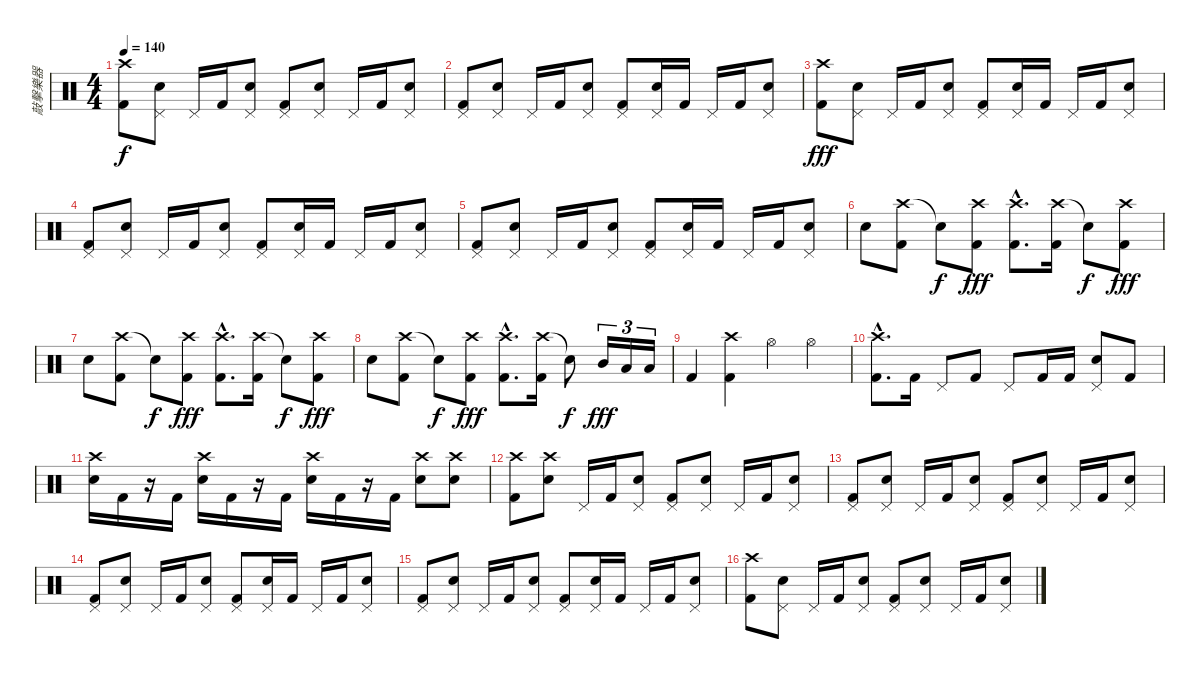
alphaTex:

\track ("敲擊樂器" "敲擊樂器") {instrument percussion}
\staff {score}
\articulation defaults
\ts (4 4)
\tempo 140
\clef neutral
\ks c
("Crash high (hit)" "Kick (hit) 2").8{dy f} ("Pedal Hi-Hat (hit)" "Snare (hit) 2").8 "Pedal Hi-Hat (hit)".16 "Kick (hit) 2".16 ("Pedal Hi-Hat (hit)" "Snare (hit) 2").8 ("Pedal Hi-Hat (hit)" "Kick (hit) 2").8 ("Pedal Hi-Hat (hit)" "Snare (hit) 2").8 "Pedal Hi-Hat (hit)".16 "Kick (hit) 2".16 ("Pedal Hi-Hat (hit)" "Snare (hit) 2").8 |
("Pedal Hi-Hat (hit)" "Kick (hit) 2").8 ("Pedal Hi-Hat (hit)" "Snare (hit) 2").8 "Pedal Hi-Hat (hit)".16 "Kick (hit) 2".16 ("Pedal Hi-Hat (hit)" "Snare (hit) 2").8 ("Pedal Hi-Hat (hit)" "Kick (hit) 2").8 ("Pedal Hi-Hat (hit)" "Snare (hit) 2").16 "Kick (hit) 2".16 "Pedal Hi-Hat (hit)".16 "Kick (hit) 2".16 ("Pedal Hi-Hat (hit)" "Snare (hit) 2").8 |
("Crash high (hit)" "Kick (hit) 2").8{dy fff} ("Pedal Hi-Hat (hit)" "Snare (hit) 2").8 "Pedal Hi-Hat (hit)".16 "Kick (hit) 2".16 ("Pedal Hi-Hat (hit)" "Snare (hit) 2").8 ("Pedal Hi-Hat (hit)" "Kick (hit) 2").8 ("Pedal Hi-Hat (hit)" "Snare (hit) 2").16 "Kick (hit) 2".16 "Pedal Hi-Hat (hit)".16 "Kick (hit) 2".16 ("Pedal Hi-Hat (hit)" "Snare (hit) 2").8 |
("Pedal Hi-Hat (hit)" "Kick (hit) 2").8 ("Pedal Hi-Hat (hit)" "Snare (hit) 2").8 "Pedal Hi-Hat (hit)".16 "Kick (hit) 2".16 ("Pedal Hi-Hat (hit)" "Snare (hit) 2").8 ("Pedal Hi-Hat (hit)" "Kick (hit) 2").8 ("Pedal Hi-Hat (hit)" "Snare (hit) 2").16 "Kick (hit) 2".16 "Pedal Hi-Hat (hit)".16 "Kick (hit) 2".16 ("Pedal Hi-Hat (hit)" "Snare (hit) 2").8 |
("Pedal Hi-Hat (hit)" "Kick (hit) 2").8 ("Pedal Hi-Hat (hit)" "Snare (hit) 2").8 "Pedal Hi-Hat (hit)".16 "Kick (hit) 2".16 ("Pedal Hi-Hat (hit)" "Snare (hit) 2").8 ("Pedal Hi-Hat (hit)" "Kick (hit) 2").8 ("Pedal Hi-Hat (hit)" "Snare (hit) 2").16 "Kick (hit) 2".16 "Pedal Hi-Hat (hit)".16 "Kick (hit) 2".16 ("Pedal Hi-Hat (hit)" "Snare (hit) 2").8 |
"Snare (hit) 2".8 ("Crash high (hit)" "Kick (hit) 2").8 "Snare (hit)"{t}.8{dy f} ("Crash high (hit)" "Kick (hit) 2").8{dy fff} ("Crash high (hit)"{hac} "Kick (hit) 2"{hac}).8{d} ("Crash high (hit)" "Kick (hit) 2").16 "Snare (hit)"{t}.8{dy f} ("Crash high (hit)" "Kick (hit) 2").8{dy fff} |
"Snare (hit) 2".8 ("Crash high (hit)" "Kick (hit) 2").8 "Snare (hit)"{t}.8{dy f} ("Crash high (hit)" "Kick (hit) 2").8{dy fff} ("Crash high (hit)"{hac} "Kick (hit) 2"{hac}).8{d} ("Crash high (hit)" "Kick (hit) 2").16 "Snare (hit)"{t}.8{dy f} ("Crash high (hit)" "Kick (hit) 2").8{dy fff} |
"Snare (hit) 2".8 ("Crash high (hit)" "Kick (hit) 2").8 "Snare (hit)"{t}.8{dy f} ("Crash high (hit)" "Kick (hit) 2").8{dy fff} ("Crash high (hit)"{hac} "Kick (hit) 2"{hac}).8{d} ("Crash high (hit)" "Kick (hit) 2").16 "Snare (hit)"{t}.8{dy f} "Mid Tom (hit)".16{tu (3 2) dy fff} "Low Tom (hit)".16{tu (3 2)} "Low Floor Tom (hit)".16{tu (3 2)} |
"Kick (hit) 2".4 ("Crash high (hit)" "Kick (hit) 2").4 "Hi-Hat (open)".4 "Hi-Hat (open)".4 |
("Crash high (hit)"{hac} "Kick (hit) 2"{hac}).8{d} "Kick (hit) 2".16 "Pedal Hi-Hat (hit)".8 "Kick (hit) 2".8 "Pedal Hi-Hat (hit)".8 "Kick (hit) 2".16 "Kick (hit) 2".16 ("Pedal Hi-Hat (hit)" "Snare (hit) 2").8 "Kick (hit) 2".8 |
("Crash high (hit)" "Snare (hit) 2").16 "Kick (hit) 2".16 r.16 "Kick (hit) 2".16 ("Crash high (hit)" "Snare (hit) 2").16 "Kick (hit) 2".16 r.16 "Kick (hit) 2".16 ("Crash high (hit)" "Snare (hit) 2").16 "Kick (hit) 2".16 r.16 "Kick (hit) 2".16 ("Crash high (hit)" "Snare (hit) 2").8 ("Crash high (hit)" "Snare (hit) 2").8 |
("Crash high (hit)" "Kick (hit) 2").8 ("Crash high (hit)" "Snare (hit) 2").8 "Pedal Hi-Hat (hit)".16 "Kick (hit) 2".16 ("Pedal Hi-Hat (hit)" "Snare (hit) 2").8 ("Pedal Hi-Hat (hit)" "Kick (hit) 2").8 ("Pedal Hi-Hat (hit)" "Snare (hit) 2").8 "Pedal Hi-Hat (hit)".16 "Kick (hit) 2".16 ("Pedal Hi-Hat (hit)" "Snare (hit) 2").8 |
("Pedal Hi-Hat (hit)" "Kick (hit) 2").8 ("Pedal Hi-Hat (hit)" "Snare (hit) 2").8 "Pedal Hi-Hat (hit)".16 "Kick (hit) 2".16 ("Pedal Hi-Hat (hit)" "Snare (hit) 2").8 ("Pedal Hi-Hat (hit)" "Kick (hit) 2").8 ("Pedal Hi-Hat (hit)" "Snare (hit) 2").8 "Pedal Hi-Hat (hit)".16 "Kick (hit) 2".16 ("Pedal Hi-Hat (hit)" "Snare (hit) 2").8 |
("Pedal Hi-Hat (hit)" "Kick (hit) 2").8 ("Pedal Hi-Hat (hit)" "Snare (hit) 2").8 "Pedal Hi-Hat (hit)".16 "Kick (hit) 2".16 ("Pedal Hi-Hat (hit)" "Snare (hit) 2").8 ("Pedal Hi-Hat (hit)" "Kick (hit) 2").8 ("Pedal Hi-Hat (hit)" "Snare (hit) 2").16 "Kick (hit) 2".16 "Pedal Hi-Hat (hit)".16 "Kick (hit) 2".16 ("Pedal Hi-Hat (hit)" "Snare (hit) 2").8 |
("Pedal Hi-Hat (hit)" "Kick (hit) 2").8 ("Pedal Hi-Hat (hit)" "Snare (hit) 2").8 "Pedal Hi-Hat (hit)".16 "Kick (hit) 2".16 ("Pedal Hi-Hat (hit)" "Snare (hit) 2").8 ("Pedal Hi-Hat (hit)" "Kick (hit) 2").8 ("Pedal Hi-Hat (hit)" "Snare (hit) 2").16 "Kick (hit) 2".16 "Pedal Hi-Hat (hit)".16 "Kick (hit) 2".16 ("Pedal Hi-Hat (hit)" "Snare (hit) 2").8 |
("Crash high (hit)" "Kick (hit) 2").8 ("Pedal Hi-Hat (hit)" "Snare (hit) 2").8 "Pedal Hi-Hat (hit)".16 "Kick (hit) 2".16 ("Pedal Hi-Hat (hit)" "Snare (hit) 2").8 ("Pedal Hi-Hat (hit)" "Kick (hit) 2").8 ("Pedal Hi-Hat (hit)" "Snare (hit) 2").8 "Pedal Hi-Hat (hit)".16 "Kick (hit) 2".16 ("Pedal Hi-Hat (hit)" "Snare (hit) 2").8
